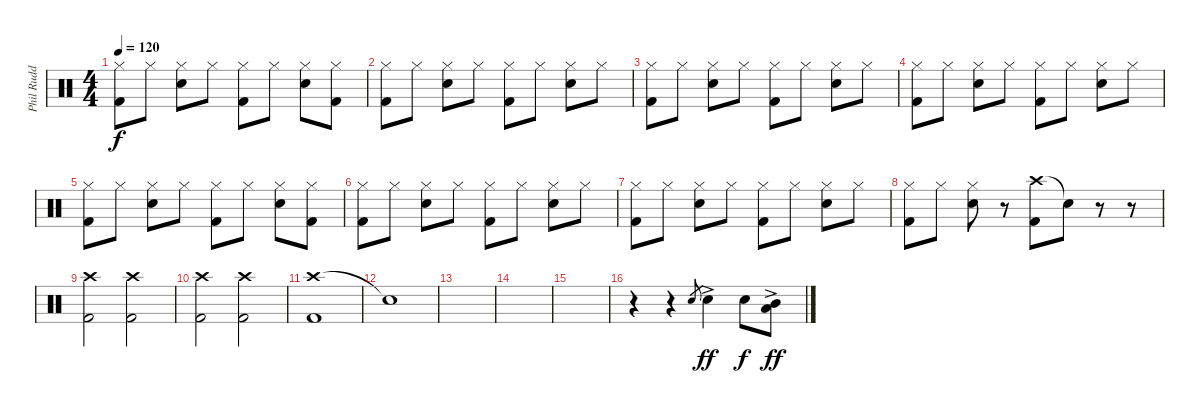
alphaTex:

\track ("Phil Rudd" "Phil Rudd") {instrument percussion}
\staff {score}
\articulation defaults
\ts (4 4)
\tempo 120
\clef neutral
\ks c
("Hi-Hat (closed)" "Kick (hit) 2").8{dy f} "Hi-Hat (closed)".8 ("Hi-Hat (closed)" "Snare (hit) 2").8 "Hi-Hat (closed)".8 ("Hi-Hat (closed)" "Kick (hit) 2").8 "Hi-Hat (closed)".8 ("Hi-Hat (closed)" "Snare (hit) 2").8 ("Hi-Hat (closed)" "Kick (hit) 2").8 |
("Hi-Hat (closed)" "Kick (hit) 2").8 "Hi-Hat (closed)".8 ("Hi-Hat (closed)" "Snare (hit) 2").8 "Hi-Hat (closed)".8 ("Hi-Hat (closed)" "Kick (hit) 2").8 "Hi-Hat (closed)".8 ("Hi-Hat (closed)" "Snare (hit) 2").8 "Hi-Hat (closed)".8 |
("Hi-Hat (closed)" "Kick (hit) 2").8 "Hi-Hat (closed)".8 ("Hi-Hat (closed)" "Snare (hit) 2").8 "Hi-Hat (closed)".8 ("Hi-Hat (closed)" "Kick (hit) 2").8 "Hi-Hat (closed)".8 ("Hi-Hat (closed)" "Snare (hit) 2").8 "Hi-Hat (closed)".8 |
("Hi-Hat (closed)" "Kick (hit) 2").8 "Hi-Hat (closed)".8 ("Hi-Hat (closed)" "Snare (hit) 2").8 "Hi-Hat (closed)".8 ("Hi-Hat (closed)" "Kick (hit) 2").8 "Hi-Hat (closed)".8 ("Hi-Hat (closed)" "Snare (hit) 2").8 "Hi-Hat (closed)".8 |
("Hi-Hat (closed)" "Kick (hit) 2").8 "Hi-Hat (closed)".8 ("Hi-Hat (closed)" "Snare (hit) 2").8 "Hi-Hat (closed)".8 ("Hi-Hat (closed)" "Kick (hit) 2").8 "Hi-Hat (closed)".8 ("Hi-Hat (closed)" "Snare (hit) 2").8 ("Hi-Hat (closed)" "Kick (hit) 2").8 |
("Hi-Hat (closed)" "Kick (hit) 2").8 "Hi-Hat (closed)".8 ("Hi-Hat (closed)" "Snare (hit) 2").8 "Hi-Hat (closed)".8 ("Hi-Hat (closed)" "Kick (hit) 2").8 "Hi-Hat (closed)".8 ("Hi-Hat (closed)" "Snare (hit) 2").8 "Hi-Hat (closed)".8 |
("Hi-Hat (closed)" "Kick (hit) 2").8 "Hi-Hat (closed)".8 ("Hi-Hat (closed)" "Snare (hit) 2").8 "Hi-Hat (closed)".8 ("Hi-Hat (closed)" "Kick (hit) 2").8 "Hi-Hat (closed)".8 ("Hi-Hat (closed)" "Snare (hit) 2").8 "Hi-Hat (closed)".8 |
("Hi-Hat (closed)" "Kick (hit) 2").8 "Hi-Hat (closed)".8 ("Hi-Hat (closed)" "Snare (hit) 2").8 r.8 ("Crash high (hit)" "Kick (hit) 2").8 "Snare (hit)"{t}.8 r.8 r.8 |
("Crash high (hit)" "Kick (hit) 2").2 ("Crash high (hit)" "Kick (hit) 2").2 |
("Crash high (hit)" "Kick (hit) 2").2 ("Crash high (hit)" "Kick (hit) 2").2 |
("Crash high (hit)" "Kick (hit) 2").1 |
"Snare (hit)"{t}.1 |
|
|
|
r.4 r.4 "Snare (hit) 2".8{gr} "Snare (hit) 2"{ac}.4{dy ff} "Snare (hit) 2".8{dy f} ("Mid Tom (hit)"{ac} "Low Tom (hit)").8{dy ff}
